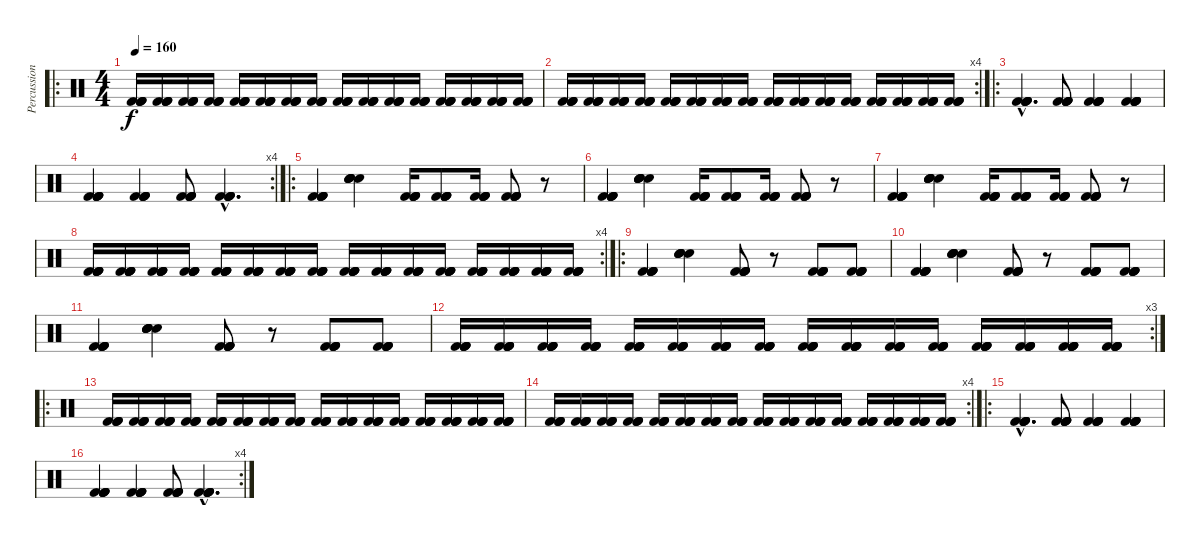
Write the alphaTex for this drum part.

\track ("Percussion" "Percussion") {instrument percussion}
\staff {score}
\articulation defaults
\ro
\ts (4 4)
\tempo 160
\clef neutral
\ks c
("Kick (hit) 2" "Kick (hit) 2" "Kick (hit) 2" "Kick (hit) 2").16{dy f} ("Kick (hit) 2" "Kick (hit) 2" "Kick (hit) 2" "Kick (hit) 2").16 ("Kick (hit) 2" "Kick (hit) 2" "Kick (hit) 2" "Kick (hit) 2").16 ("Kick (hit) 2" "Kick (hit) 2" "Kick (hit) 2" "Kick (hit) 2").16 ("Kick (hit) 2" "Kick (hit) 2" "Kick (hit) 2" "Kick (hit) 2").16 ("Kick (hit) 2" "Kick (hit) 2" "Kick (hit) 2" "Kick (hit) 2").16 ("Kick (hit) 2" "Kick (hit) 2" "Kick (hit) 2" "Kick (hit) 2").16 ("Kick (hit) 2" "Kick (hit) 2" "Kick (hit) 2" "Kick (hit) 2").16 ("Kick (hit) 2" "Kick (hit) 2" "Kick (hit) 2" "Kick (hit) 2").16 ("Kick (hit) 2" "Kick (hit) 2" "Kick (hit) 2" "Kick (hit) 2").16 ("Kick (hit) 2" "Kick (hit) 2" "Kick (hit) 2" "Kick (hit) 2").16 ("Kick (hit) 2" "Kick (hit) 2" "Kick (hit) 2" "Kick (hit) 2").16 ("Kick (hit) 2" "Kick (hit) 2" "Kick (hit) 2" "Kick (hit) 2").16 ("Kick (hit) 2" "Kick (hit) 2" "Kick (hit) 2" "Kick (hit) 2").16 ("Kick (hit) 2" "Kick (hit) 2" "Kick (hit) 2" "Kick (hit) 2").16 ("Kick (hit) 2" "Kick (hit) 2" "Kick (hit) 2" "Kick (hit) 2").16 |
\rc 4
("Kick (hit) 2" "Kick (hit) 2" "Kick (hit) 2" "Kick (hit) 2").16 ("Kick (hit) 2" "Kick (hit) 2" "Kick (hit) 2" "Kick (hit) 2").16 ("Kick (hit) 2" "Kick (hit) 2" "Kick (hit) 2" "Kick (hit) 2").16 ("Kick (hit) 2" "Kick (hit) 2" "Kick (hit) 2" "Kick (hit) 2").16 ("Kick (hit) 2" "Kick (hit) 2" "Kick (hit) 2" "Kick (hit) 2").16 ("Kick (hit) 2" "Kick (hit) 2" "Kick (hit) 2" "Kick (hit) 2").16 ("Kick (hit) 2" "Kick (hit) 2" "Kick (hit) 2" "Kick (hit) 2").16 ("Kick (hit) 2" "Kick (hit) 2" "Kick (hit) 2" "Kick (hit) 2").16 ("Kick (hit) 2" "Kick (hit) 2" "Kick (hit) 2" "Kick (hit) 2").16 ("Kick (hit) 2" "Kick (hit) 2" "Kick (hit) 2" "Kick (hit) 2").16 ("Kick (hit) 2" "Kick (hit) 2" "Kick (hit) 2" "Kick (hit) 2").16 ("Kick (hit) 2" "Kick (hit) 2" "Kick (hit) 2" "Kick (hit) 2").16 ("Kick (hit) 2" "Kick (hit) 2" "Kick (hit) 2" "Kick (hit) 2").16 ("Kick (hit) 2" "Kick (hit) 2" "Kick (hit) 2" "Kick (hit) 2").16 ("Kick (hit) 2" "Kick (hit) 2" "Kick (hit) 2" "Kick (hit) 2").16 ("Kick (hit) 2" "Kick (hit) 2" "Kick (hit) 2" "Kick (hit) 2").16 |
\ro
("Kick (hit) 2"{hac} "Kick (hit) 2"{hac} "Kick (hit) 2"{hac} "Kick (hit) 2"{hac} "Kick (hit) 2"{hac}).4{d} ("Kick (hit) 2" "Kick (hit) 2" "Kick (hit) 2" "Kick (hit) 2" "Kick (hit) 2").8 ("Kick (hit) 2" "Kick (hit) 2" "Kick (hit) 2" "Kick (hit) 2" "Kick (hit) 2").4 ("Kick (hit) 2" "Kick (hit) 2" "Kick (hit) 2" "Kick (hit) 2" "Kick (hit) 2").4 |
\rc 4
("Kick (hit) 2" "Kick (hit) 2" "Kick (hit) 2" "Kick (hit) 2" "Kick (hit) 2").4 ("Kick (hit) 2" "Kick (hit) 2" "Kick (hit) 2" "Kick (hit) 2" "Kick (hit) 2").4 ("Kick (hit) 2" "Kick (hit) 2" "Kick (hit) 2" "Kick (hit) 2" "Kick (hit) 2").8 ("Kick (hit) 2"{hac} "Kick (hit) 2"{hac} "Kick (hit) 2"{hac} "Kick (hit) 2"{hac} "Kick (hit) 2"{hac}).4{d} |
\ro
("Kick (hit) 2" "Kick (hit) 2" "Kick (hit) 2" "Kick (hit) 2" "Kick (hit) 2").4 ("Snare (hit) 2" "Snare (hit) 2" "Snare (hit) 2" "Snare (hit) 2" "Snare (hit) 2").4 ("Kick (hit) 2" "Kick (hit) 2" "Kick (hit) 2" "Kick (hit) 2" "Kick (hit) 2").16 ("Kick (hit) 2" "Kick (hit) 2" "Kick (hit) 2" "Kick (hit) 2" "Kick (hit) 2").8 ("Kick (hit) 2" "Kick (hit) 2" "Kick (hit) 2" "Kick (hit) 2" "Kick (hit) 2").16 ("Kick (hit) 2" "Kick (hit) 2" "Kick (hit) 2" "Kick (hit) 2" "Kick (hit) 2").8 r.8 |
("Kick (hit) 2" "Kick (hit) 2" "Kick (hit) 2" "Kick (hit) 2" "Kick (hit) 2").4 ("Snare (hit) 2" "Snare (hit) 2" "Snare (hit) 2" "Snare (hit) 2" "Snare (hit) 2").4 ("Kick (hit) 2" "Kick (hit) 2" "Kick (hit) 2" "Kick (hit) 2" "Kick (hit) 2").16 ("Kick (hit) 2" "Kick (hit) 2" "Kick (hit) 2" "Kick (hit) 2" "Kick (hit) 2").8 ("Kick (hit) 2" "Kick (hit) 2" "Kick (hit) 2" "Kick (hit) 2" "Kick (hit) 2").16 ("Kick (hit) 2" "Kick (hit) 2" "Kick (hit) 2" "Kick (hit) 2" "Kick (hit) 2").8 r.8 |
("Kick (hit) 2" "Kick (hit) 2" "Kick (hit) 2" "Kick (hit) 2" "Kick (hit) 2").4 ("Snare (hit) 2" "Snare (hit) 2" "Snare (hit) 2" "Snare (hit) 2" "Snare (hit) 2").4 ("Kick (hit) 2" "Kick (hit) 2" "Kick (hit) 2" "Kick (hit) 2" "Kick (hit) 2").16 ("Kick (hit) 2" "Kick (hit) 2" "Kick (hit) 2" "Kick (hit) 2" "Kick (hit) 2").8 ("Kick (hit) 2" "Kick (hit) 2" "Kick (hit) 2" "Kick (hit) 2" "Kick (hit) 2").16 ("Kick (hit) 2" "Kick (hit) 2" "Kick (hit) 2" "Kick (hit) 2" "Kick (hit) 2").8 r.8 |
\rc 4
("Kick (hit) 2" "Kick (hit) 2" "Kick (hit) 2" "Kick (hit) 2" "Kick (hit) 2").16 ("Kick (hit) 2" "Kick (hit) 2" "Kick (hit) 2" "Kick (hit) 2" "Kick (hit) 2").16 ("Kick (hit) 2" "Kick (hit) 2" "Kick (hit) 2" "Kick (hit) 2" "Kick (hit) 2").16 ("Kick (hit) 2" "Kick (hit) 2" "Kick (hit) 2" "Kick (hit) 2" "Kick (hit) 2").16 ("Kick (hit) 2" "Kick (hit) 2" "Kick (hit) 2" "Kick (hit) 2" "Kick (hit) 2").16 ("Kick (hit) 2" "Kick (hit) 2" "Kick (hit) 2" "Kick (hit) 2" "Kick (hit) 2").16 ("Kick (hit) 2" "Kick (hit) 2" "Kick (hit) 2" "Kick (hit) 2" "Kick (hit) 2").16 ("Kick (hit) 2" "Kick (hit) 2" "Kick (hit) 2" "Kick (hit) 2" "Kick (hit) 2").16 ("Kick (hit) 2" "Kick (hit) 2" "Kick (hit) 2" "Kick (hit) 2" "Kick (hit) 2").16 ("Kick (hit) 2" "Kick (hit) 2" "Kick (hit) 2" "Kick (hit) 2" "Kick (hit) 2").16 ("Kick (hit) 2" "Kick (hit) 2" "Kick (hit) 2" "Kick (hit) 2" "Kick (hit) 2").16 ("Kick (hit) 2" "Kick (hit) 2" "Kick (hit) 2" "Kick (hit) 2" "Kick (hit) 2").16 ("Kick (hit) 2" "Kick (hit) 2" "Kick (hit) 2" "Kick (hit) 2" "Kick (hit) 2").16 ("Kick (hit) 2" "Kick (hit) 2" "Kick (hit) 2" "Kick (hit) 2" "Kick (hit) 2").16 ("Kick (hit) 2" "Kick (hit) 2" "Kick (hit) 2" "Kick (hit) 2" "Kick (hit) 2").16 ("Kick (hit) 2" "Kick (hit) 2" "Kick (hit) 2" "Kick (hit) 2" "Kick (hit) 2").16 |
\ro
("Kick (hit) 2" "Kick (hit) 2" "Kick (hit) 2" "Kick (hit) 2" "Kick (hit) 2").4 ("Snare (hit) 2" "Snare (hit) 2" "Snare (hit) 2" "Snare (hit) 2" "Snare (hit) 2").4 ("Kick (hit) 2" "Kick (hit) 2" "Kick (hit) 2" "Kick (hit) 2" "Kick (hit) 2").8 r.8 ("Kick (hit) 2" "Kick (hit) 2" "Kick (hit) 2" "Kick (hit) 2" "Kick (hit) 2").8 ("Kick (hit) 2" "Kick (hit) 2" "Kick (hit) 2" "Kick (hit) 2" "Kick (hit) 2").8 |
("Kick (hit) 2" "Kick (hit) 2" "Kick (hit) 2" "Kick (hit) 2" "Kick (hit) 2").4 ("Snare (hit) 2" "Snare (hit) 2" "Snare (hit) 2" "Snare (hit) 2" "Snare (hit) 2").4 ("Kick (hit) 2" "Kick (hit) 2" "Kick (hit) 2" "Kick (hit) 2" "Kick (hit) 2").8 r.8 ("Kick (hit) 2" "Kick (hit) 2" "Kick (hit) 2" "Kick (hit) 2" "Kick (hit) 2").8 ("Kick (hit) 2" "Kick (hit) 2" "Kick (hit) 2" "Kick (hit) 2" "Kick (hit) 2").8 |
("Kick (hit) 2" "Kick (hit) 2" "Kick (hit) 2" "Kick (hit) 2" "Kick (hit) 2").4 ("Snare (hit) 2" "Snare (hit) 2" "Snare (hit) 2" "Snare (hit) 2" "Snare (hit) 2").4 ("Kick (hit) 2" "Kick (hit) 2" "Kick (hit) 2" "Kick (hit) 2" "Kick (hit) 2").8 r.8 ("Kick (hit) 2" "Kick (hit) 2" "Kick (hit) 2" "Kick (hit) 2" "Kick (hit) 2").8 ("Kick (hit) 2" "Kick (hit) 2" "Kick (hit) 2" "Kick (hit) 2" "Kick (hit) 2").8 |
\rc 3
("Kick (hit) 2" "Kick (hit) 2" "Kick (hit) 2" "Kick (hit) 2" "Kick (hit) 2").16 ("Kick (hit) 2" "Kick (hit) 2" "Kick (hit) 2" "Kick (hit) 2" "Kick (hit) 2").16 ("Kick (hit) 2" "Kick (hit) 2" "Kick (hit) 2" "Kick (hit) 2" "Kick (hit) 2").16 ("Kick (hit) 2" "Kick (hit) 2" "Kick (hit) 2" "Kick (hit) 2" "Kick (hit) 2").16 ("Kick (hit) 2" "Kick (hit) 2" "Kick (hit) 2" "Kick (hit) 2" "Kick (hit) 2").16 ("Kick (hit) 2" "Kick (hit) 2" "Kick (hit) 2" "Kick (hit) 2" "Kick (hit) 2").16 ("Kick (hit) 2" "Kick (hit) 2" "Kick (hit) 2" "Kick (hit) 2" "Kick (hit) 2").16 ("Kick (hit) 2" "Kick (hit) 2" "Kick (hit) 2" "Kick (hit) 2" "Kick (hit) 2").16 ("Kick (hit) 2" "Kick (hit) 2" "Kick (hit) 2" "Kick (hit) 2" "Kick (hit) 2").16 ("Kick (hit) 2" "Kick (hit) 2" "Kick (hit) 2" "Kick (hit) 2" "Kick (hit) 2").16 ("Kick (hit) 2" "Kick (hit) 2" "Kick (hit) 2" "Kick (hit) 2" "Kick (hit) 2").16 ("Kick (hit) 2" "Kick (hit) 2" "Kick (hit) 2" "Kick (hit) 2" "Kick (hit) 2").16 ("Kick (hit) 2" "Kick (hit) 2" "Kick (hit) 2" "Kick (hit) 2" "Kick (hit) 2").16 ("Kick (hit) 2" "Kick (hit) 2" "Kick (hit) 2" "Kick (hit) 2" "Kick (hit) 2").16 ("Kick (hit) 2" "Kick (hit) 2" "Kick (hit) 2" "Kick (hit) 2" "Kick (hit) 2").16 ("Kick (hit) 2" "Kick (hit) 2" "Kick (hit) 2" "Kick (hit) 2" "Kick (hit) 2").16 |
\ro
("Kick (hit) 2" "Kick (hit) 2" "Kick (hit) 2" "Kick (hit) 2").16 ("Kick (hit) 2" "Kick (hit) 2" "Kick (hit) 2" "Kick (hit) 2").16 ("Kick (hit) 2" "Kick (hit) 2" "Kick (hit) 2" "Kick (hit) 2").16 ("Kick (hit) 2" "Kick (hit) 2" "Kick (hit) 2" "Kick (hit) 2").16 ("Kick (hit) 2" "Kick (hit) 2" "Kick (hit) 2" "Kick (hit) 2").16 ("Kick (hit) 2" "Kick (hit) 2" "Kick (hit) 2" "Kick (hit) 2").16 ("Kick (hit) 2" "Kick (hit) 2" "Kick (hit) 2" "Kick (hit) 2").16 ("Kick (hit) 2" "Kick (hit) 2" "Kick (hit) 2" "Kick (hit) 2").16 ("Kick (hit) 2" "Kick (hit) 2" "Kick (hit) 2" "Kick (hit) 2").16 ("Kick (hit) 2" "Kick (hit) 2" "Kick (hit) 2" "Kick (hit) 2").16 ("Kick (hit) 2" "Kick (hit) 2" "Kick (hit) 2" "Kick (hit) 2").16 ("Kick (hit) 2" "Kick (hit) 2" "Kick (hit) 2" "Kick (hit) 2").16 ("Kick (hit) 2" "Kick (hit) 2" "Kick (hit) 2" "Kick (hit) 2").16 ("Kick (hit) 2" "Kick (hit) 2" "Kick (hit) 2" "Kick (hit) 2").16 ("Kick (hit) 2" "Kick (hit) 2" "Kick (hit) 2" "Kick (hit) 2").16 ("Kick (hit) 2" "Kick (hit) 2" "Kick (hit) 2" "Kick (hit) 2").16 |
\rc 4
("Kick (hit) 2" "Kick (hit) 2" "Kick (hit) 2" "Kick (hit) 2").16 ("Kick (hit) 2" "Kick (hit) 2" "Kick (hit) 2" "Kick (hit) 2").16 ("Kick (hit) 2" "Kick (hit) 2" "Kick (hit) 2" "Kick (hit) 2").16 ("Kick (hit) 2" "Kick (hit) 2" "Kick (hit) 2" "Kick (hit) 2").16 ("Kick (hit) 2" "Kick (hit) 2" "Kick (hit) 2" "Kick (hit) 2").16 ("Kick (hit) 2" "Kick (hit) 2" "Kick (hit) 2" "Kick (hit) 2").16 ("Kick (hit) 2" "Kick (hit) 2" "Kick (hit) 2" "Kick (hit) 2").16 ("Kick (hit) 2" "Kick (hit) 2" "Kick (hit) 2" "Kick (hit) 2").16 ("Kick (hit) 2" "Kick (hit) 2" "Kick (hit) 2" "Kick (hit) 2").16 ("Kick (hit) 2" "Kick (hit) 2" "Kick (hit) 2" "Kick (hit) 2").16 ("Kick (hit) 2" "Kick (hit) 2" "Kick (hit) 2" "Kick (hit) 2").16 ("Kick (hit) 2" "Kick (hit) 2" "Kick (hit) 2" "Kick (hit) 2").16 ("Kick (hit) 2" "Kick (hit) 2" "Kick (hit) 2" "Kick (hit) 2").16 ("Kick (hit) 2" "Kick (hit) 2" "Kick (hit) 2" "Kick (hit) 2").16 ("Kick (hit) 2" "Kick (hit) 2" "Kick (hit) 2" "Kick (hit) 2").16 ("Kick (hit) 2" "Kick (hit) 2" "Kick (hit) 2" "Kick (hit) 2").16 |
\ro
("Kick (hit) 2"{hac} "Kick (hit) 2"{hac} "Kick (hit) 2"{hac} "Kick (hit) 2"{hac} "Kick (hit) 2"{hac}).4{d} ("Kick (hit) 2" "Kick (hit) 2" "Kick (hit) 2" "Kick (hit) 2" "Kick (hit) 2").8 ("Kick (hit) 2" "Kick (hit) 2" "Kick (hit) 2" "Kick (hit) 2" "Kick (hit) 2").4 ("Kick (hit) 2" "Kick (hit) 2" "Kick (hit) 2" "Kick (hit) 2" "Kick (hit) 2").4 |
\rc 4
("Kick (hit) 2" "Kick (hit) 2" "Kick (hit) 2" "Kick (hit) 2" "Kick (hit) 2").4 ("Kick (hit) 2" "Kick (hit) 2" "Kick (hit) 2" "Kick (hit) 2" "Kick (hit) 2").4 ("Kick (hit) 2" "Kick (hit) 2" "Kick (hit) 2" "Kick (hit) 2" "Kick (hit) 2").8 ("Kick (hit) 2"{hac} "Kick (hit) 2"{hac} "Kick (hit) 2"{hac} "Kick (hit) 2"{hac} "Kick (hit) 2"{hac}).4{d}
